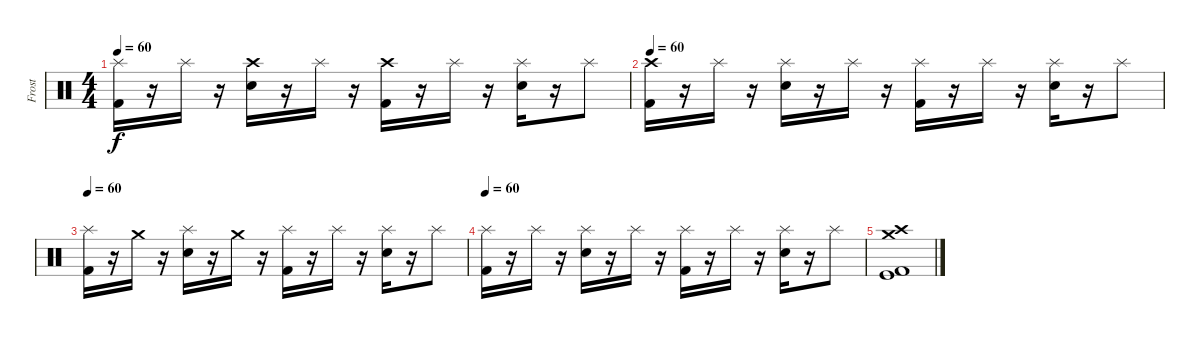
\track ("Frost" "Frost") {instrument percussion}
\staff {score}
\articulation defaults
\ts (4 4)
\tempo 60
\clef neutral
\ks c
("Kick (hit) 2" "Splash (hit)").16{dy f} r.16 "Splash (hit)".16 r.16 ("Electric Snare (hit)" "Crash high (hit)").16 r.16 "Splash (hit)".16 r.16 ("Kick (hit) 2" "Crash high (hit)").16 r.16 "Splash (hit)".16 r.16 ("Electric Snare (hit)" "Splash (hit)").16 r.16 "Splash (hit)".8 |
\tempo 60
("Kick (hit) 2" "Crash high (hit)").16 r.16 "Splash (hit)".16 r.16 ("Electric Snare (hit)" "Splash (hit)").16 r.16 "Splash (hit)".16 r.16 ("Kick (hit) 2" "Splash (hit)").16 r.16 "Splash (hit)".16 r.16 ("Electric Snare (hit)" "Splash (hit)").16 r.16 "Splash (hit)".8 |
\tempo 60
("Kick (hit) 2" "Splash (hit)").16 r.16 "Crash medium (hit)".16 r.16 ("Electric Snare (hit)" "Splash (hit)").16 r.16 "Crash medium (hit)".16 r.16 ("Kick (hit) 2" "Splash (hit)").16 r.16 "Splash (hit)".16 r.16 ("Electric Snare (hit)" "Splash (hit)").16 r.16 "Splash (hit)".8 |
\tempo 60
("Kick (hit) 2" "Splash (hit)").16 r.16 "Splash (hit)".16 r.16 ("Electric Snare (hit)" "Splash (hit)").16 r.16 "Splash (hit)".16 r.16 ("Kick (hit) 2" "Splash (hit)").16 r.16 "Splash (hit)".16 r.16 ("Electric Snare (hit)" "Splash (hit)").16 r.16 "Splash (hit)".8 |
("Kick (hit) 2" "Kick (hit)" "Crash medium (hit)" "Crash high (hit)").1
